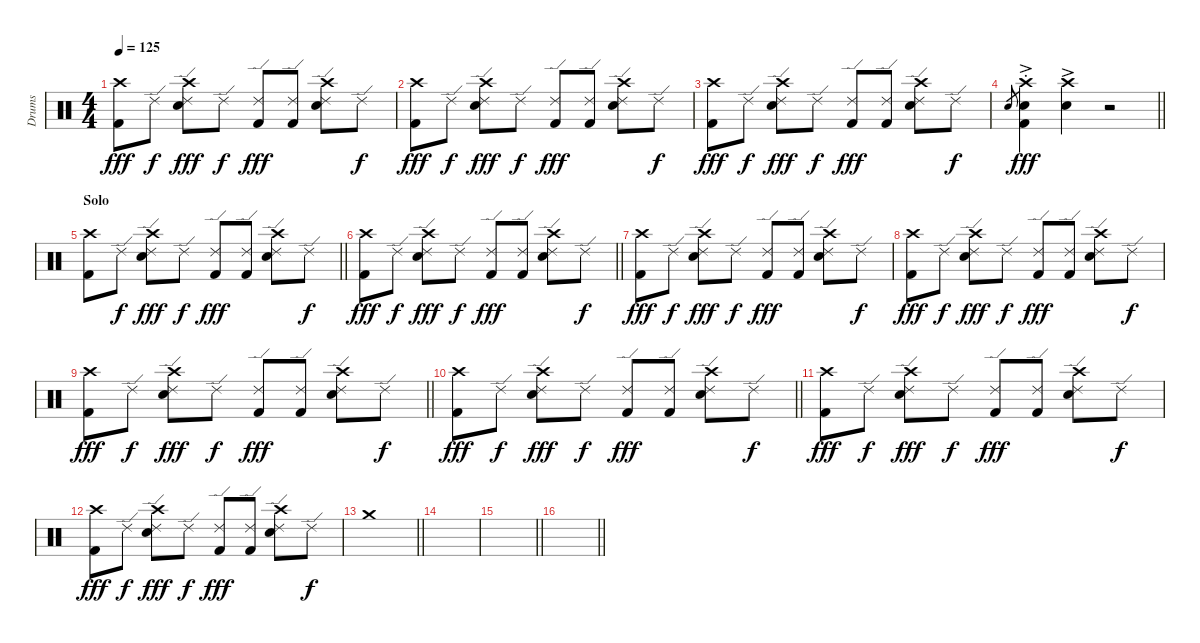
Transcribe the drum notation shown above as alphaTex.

\track ("Drums" "Drums") {instrument percussion}
\staff {score}
\articulation defaults
\ts (4 4)
\tempo 125
\clef neutral
\ks c
("Crash high (hit)" "Kick (hit) 2").8{dy fff} "Ride (edge) 2".8{dy f} ("Ride (edge) 2" "Crash high (hit)" "Electric Snare (hit)").8{dy fff} "Ride (edge) 2".8{dy f} ("Ride (edge) 2" "Kick (hit) 2").8{dy fff} ("Ride (edge) 2" "Kick (hit) 2").8 ("Ride (edge) 2" "Crash high (hit)" "Electric Snare (hit)").8 "Ride (edge) 2".8{dy f} |
("Crash high (hit)" "Kick (hit) 2").8{dy fff} "Ride (edge) 2".8{dy f} ("Ride (edge) 2" "Crash high (hit)" "Electric Snare (hit)").8{dy fff} "Ride (edge) 2".8{dy f} ("Ride (edge) 2" "Kick (hit) 2").8{dy fff} ("Ride (edge) 2" "Kick (hit) 2").8 ("Ride (edge) 2" "Crash high (hit)" "Electric Snare (hit)").8 "Ride (edge) 2".8{dy f} |
("Crash high (hit)" "Kick (hit) 2").8{dy fff} "Ride (edge) 2".8{dy f} ("Ride (edge) 2" "Crash high (hit)" "Electric Snare (hit)").8{dy fff} "Ride (edge) 2".8{dy f} ("Ride (edge) 2" "Kick (hit) 2").8{dy fff} ("Ride (edge) 2" "Kick (hit) 2").8 ("Ride (edge) 2" "Crash high (hit)" "Electric Snare (hit)").8 "Ride (edge) 2".8{dy f} |
\barLineRight lightlight "Electric Snare (hit)".8{gr}
("Crash high (hit)"{ac st} "Electric Snare (hit)" "Kick (hit) 2"{ac st}).4{dy fff} ("Crash high (hit)"{ac} "Electric Snare (hit)"{ac}).4 r.2 |
\section ("" "Solo")
\barLineRight lightlight
("Crash high (hit)" "Kick (hit) 2").8 "Ride (edge) 2".8{dy f} ("Ride (edge) 2" "Crash high (hit)" "Electric Snare (hit)").8{dy fff} "Ride (edge) 2".8{dy f} ("Ride (edge) 2" "Kick (hit) 2").8{dy fff} ("Ride (edge) 2" "Kick (hit) 2").8 ("Ride (edge) 2" "Crash high (hit)" "Electric Snare (hit)").8 "Ride (edge) 2".8{dy f} |
\barLineRight lightlight
("Crash high (hit)" "Kick (hit) 2").8{dy fff} "Ride (edge) 2".8{dy f} ("Ride (edge) 2" "Crash high (hit)" "Electric Snare (hit)").8{dy fff} "Ride (edge) 2".8{dy f} ("Ride (edge) 2" "Kick (hit) 2").8{dy fff} ("Ride (edge) 2" "Kick (hit) 2").8 ("Ride (edge) 2" "Crash high (hit)" "Electric Snare (hit)").8 "Ride (edge) 2".8{dy f} |
\section ("" "")
("Crash high (hit)" "Kick (hit) 2").8{dy fff} "Ride (edge) 2".8{dy f} ("Ride (edge) 2" "Crash high (hit)" "Electric Snare (hit)").8{dy fff} "Ride (edge) 2".8{dy f} ("Ride (edge) 2" "Kick (hit) 2").8{dy fff} ("Ride (edge) 2" "Kick (hit) 2").8 ("Ride (edge) 2" "Crash high (hit)" "Electric Snare (hit)").8 "Ride (edge) 2".8{dy f} |
("Crash high (hit)" "Kick (hit) 2").8{dy fff} "Ride (edge) 2".8{dy f} ("Ride (edge) 2" "Crash high (hit)" "Electric Snare (hit)").8{dy fff} "Ride (edge) 2".8{dy f} ("Ride (edge) 2" "Kick (hit) 2").8{dy fff} ("Ride (edge) 2" "Kick (hit) 2").8 ("Ride (edge) 2" "Crash high (hit)" "Electric Snare (hit)").8 "Ride (edge) 2".8{dy f} |
\barLineRight lightlight
("Crash high (hit)" "Kick (hit) 2").8{dy fff} "Ride (edge) 2".8{dy f} ("Ride (edge) 2" "Crash high (hit)" "Electric Snare (hit)").8{dy fff} "Ride (edge) 2".8{dy f} ("Ride (edge) 2" "Kick (hit) 2").8{dy fff} ("Ride (edge) 2" "Kick (hit) 2").8 ("Ride (edge) 2" "Crash high (hit)" "Electric Snare (hit)").8 "Ride (edge) 2".8{dy f} |
\barLineRight lightlight
("Crash high (hit)" "Kick (hit) 2").8{dy fff} "Ride (edge) 2".8{dy f} ("Ride (edge) 2" "Crash high (hit)" "Electric Snare (hit)").8{dy fff} "Ride (edge) 2".8{dy f} ("Ride (edge) 2" "Kick (hit) 2").8{dy fff} ("Ride (edge) 2" "Kick (hit) 2").8 ("Ride (edge) 2" "Crash high (hit)" "Electric Snare (hit)").8 "Ride (edge) 2".8{dy f} |
("Crash high (hit)" "Kick (hit) 2").8{dy fff} "Ride (edge) 2".8{dy f} ("Ride (edge) 2" "Crash high (hit)" "Electric Snare (hit)").8{dy fff} "Ride (edge) 2".8{dy f} ("Ride (edge) 2" "Kick (hit) 2").8{dy fff} ("Ride (edge) 2" "Kick (hit) 2").8 ("Ride (edge) 2" "Crash high (hit)" "Electric Snare (hit)").8 "Ride (edge) 2".8{dy f} |
("Crash high (hit)" "Kick (hit) 2").8{dy fff} "Ride (edge) 2".8{dy f} ("Ride (edge) 2" "Crash high (hit)" "Electric Snare (hit)").8{dy fff} "Ride (edge) 2".8{dy f} ("Ride (edge) 2" "Kick (hit) 2").8{dy fff} ("Ride (edge) 2" "Kick (hit) 2").8 ("Ride (edge) 2" "Crash high (hit)" "Electric Snare (hit)").8 "Ride (edge) 2".8{dy f} |
\barLineRight lightlight "Crash medium (hit)".1
|
|
\barLineRight lightlight
|
\barLineRight lightlight
